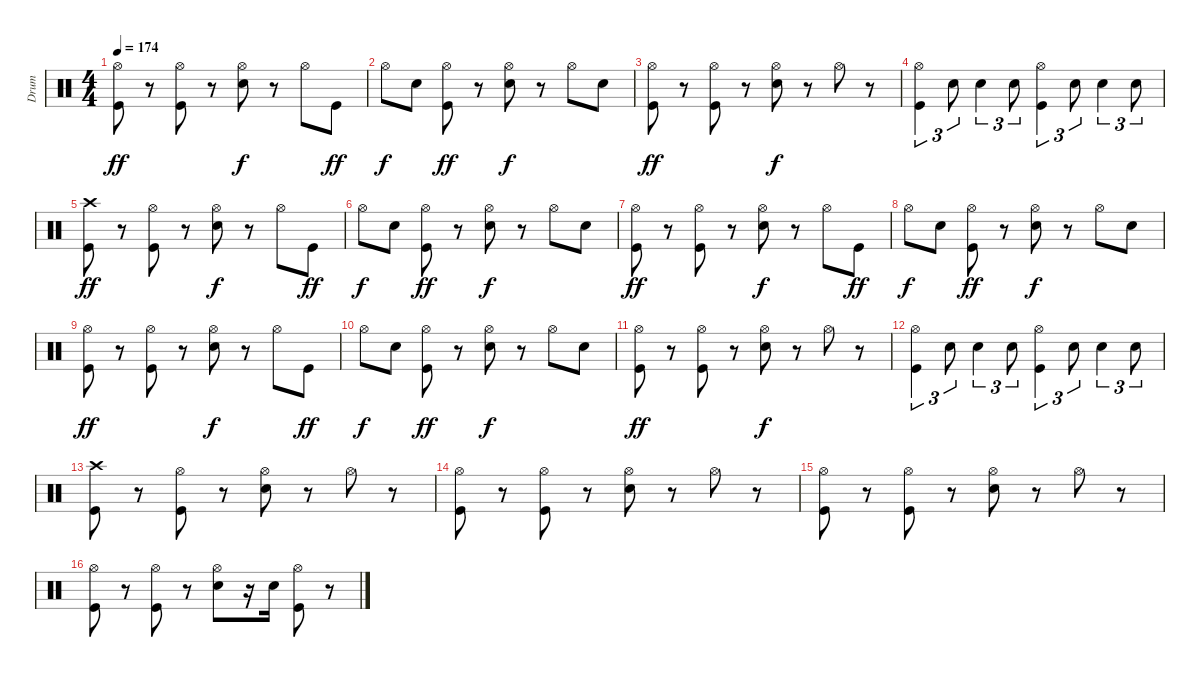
\track ("Drum" "Drum") {instrument percussion}
\staff {score}
\articulation defaults
\ts (4 4)
\tempo 174
\clef neutral
\ks c
("Hi-Hat (open)" "Kick (hit)").8{dy ff} r.8 ("Hi-Hat (open)" "Kick (hit)").8 r.8 ("Hi-Hat (open)" "Snare (hit) 2").8{dy f} r.8 "Hi-Hat (open)".8 "Kick (hit)".8{dy ff} |
"Hi-Hat (open)".8{dy f} "Snare (hit) 2".8 ("Hi-Hat (open)" "Kick (hit)").8{dy ff} r.8 ("Hi-Hat (open)" "Snare (hit) 2").8{dy f} r.8 "Hi-Hat (open)".8 "Snare (hit) 2".8 |
("Hi-Hat (open)" "Kick (hit)").8{dy ff} r.8 ("Hi-Hat (open)" "Kick (hit)").8 r.8 ("Hi-Hat (open)" "Snare (hit) 2").8{dy f} r.8 "Hi-Hat (open)".8 r.8 |
("Hi-Hat (open)" "Kick (hit)").4{tu (3 2)} "Snare (hit) 2".8{tu (3 2)} "Snare (hit) 2".4{tu (3 2)} "Snare (hit) 2".8{tu (3 2)} ("Hi-Hat (open)" "Kick (hit)").4{tu (3 2)} "Snare (hit) 2".8{tu (3 2)} "Snare (hit) 2".4{tu (3 2)} "Snare (hit) 2".8{tu (3 2)} |
("Crash high (hit)" "Kick (hit)").8{dy ff} r.8 ("Hi-Hat (open)" "Kick (hit)").8 r.8 ("Hi-Hat (open)" "Snare (hit) 2").8{dy f} r.8 "Hi-Hat (open)".8 "Kick (hit)".8{dy ff} |
"Hi-Hat (open)".8{dy f} "Snare (hit) 2".8 ("Hi-Hat (open)" "Kick (hit)").8{dy ff} r.8 ("Hi-Hat (open)" "Snare (hit) 2").8{dy f} r.8 "Hi-Hat (open)".8 "Snare (hit) 2".8 |
("Hi-Hat (open)" "Kick (hit)").8{dy ff} r.8 ("Hi-Hat (open)" "Kick (hit)").8 r.8 ("Hi-Hat (open)" "Snare (hit) 2").8{dy f} r.8 "Hi-Hat (open)".8 "Kick (hit)".8{dy ff} |
"Hi-Hat (open)".8{dy f} "Snare (hit) 2".8 ("Hi-Hat (open)" "Kick (hit)").8{dy ff} r.8 ("Hi-Hat (open)" "Snare (hit) 2").8{dy f} r.8 "Hi-Hat (open)".8 "Snare (hit) 2".8 |
("Hi-Hat (open)" "Kick (hit)").8{dy ff} r.8 ("Hi-Hat (open)" "Kick (hit)").8 r.8 ("Hi-Hat (open)" "Snare (hit) 2").8{dy f} r.8 "Hi-Hat (open)".8 "Kick (hit)".8{dy ff} |
"Hi-Hat (open)".8{dy f} "Snare (hit) 2".8 ("Hi-Hat (open)" "Kick (hit)").8{dy ff} r.8 ("Hi-Hat (open)" "Snare (hit) 2").8{dy f} r.8 "Hi-Hat (open)".8 "Snare (hit) 2".8 |
("Hi-Hat (open)" "Kick (hit)").8{dy ff} r.8 ("Hi-Hat (open)" "Kick (hit)").8 r.8 ("Hi-Hat (open)" "Snare (hit) 2").8{dy f} r.8 "Hi-Hat (open)".8 r.8 |
("Hi-Hat (open)" "Kick (hit)").4{tu (3 2)} "Snare (hit) 2".8{tu (3 2)} "Snare (hit) 2".4{tu (3 2)} "Snare (hit) 2".8{tu (3 2)} ("Hi-Hat (open)" "Kick (hit)").4{tu (3 2)} "Snare (hit) 2".8{tu (3 2)} "Snare (hit) 2".4{tu (3 2)} "Snare (hit) 2".8{tu (3 2)} |
("Crash high (hit)" "Kick (hit)").8 r.8 ("Hi-Hat (open)" "Kick (hit)").8 r.8 ("Hi-Hat (open)" "Electric Snare (hit)").8 r.8 "Hi-Hat (open)".8 r.8 |
("Hi-Hat (open)" "Kick (hit)").8 r.8 ("Hi-Hat (open)" "Kick (hit)").8 r.8 ("Hi-Hat (open)" "Electric Snare (hit)").8 r.8 "Hi-Hat (open)".8 r.8 |
("Hi-Hat (open)" "Kick (hit)").8 r.8 ("Hi-Hat (open)" "Kick (hit)").8 r.8 ("Hi-Hat (open)" "Electric Snare (hit)").8 r.8 "Hi-Hat (open)".8 r.8 |
("Hi-Hat (open)" "Kick (hit)").8 r.8 ("Hi-Hat (open)" "Kick (hit)").8 r.8 ("Hi-Hat (open)" "Electric Snare (hit)").8 r.16 "Electric Snare (hit)".16 ("Hi-Hat (open)" "Kick (hit)").8 r.8
